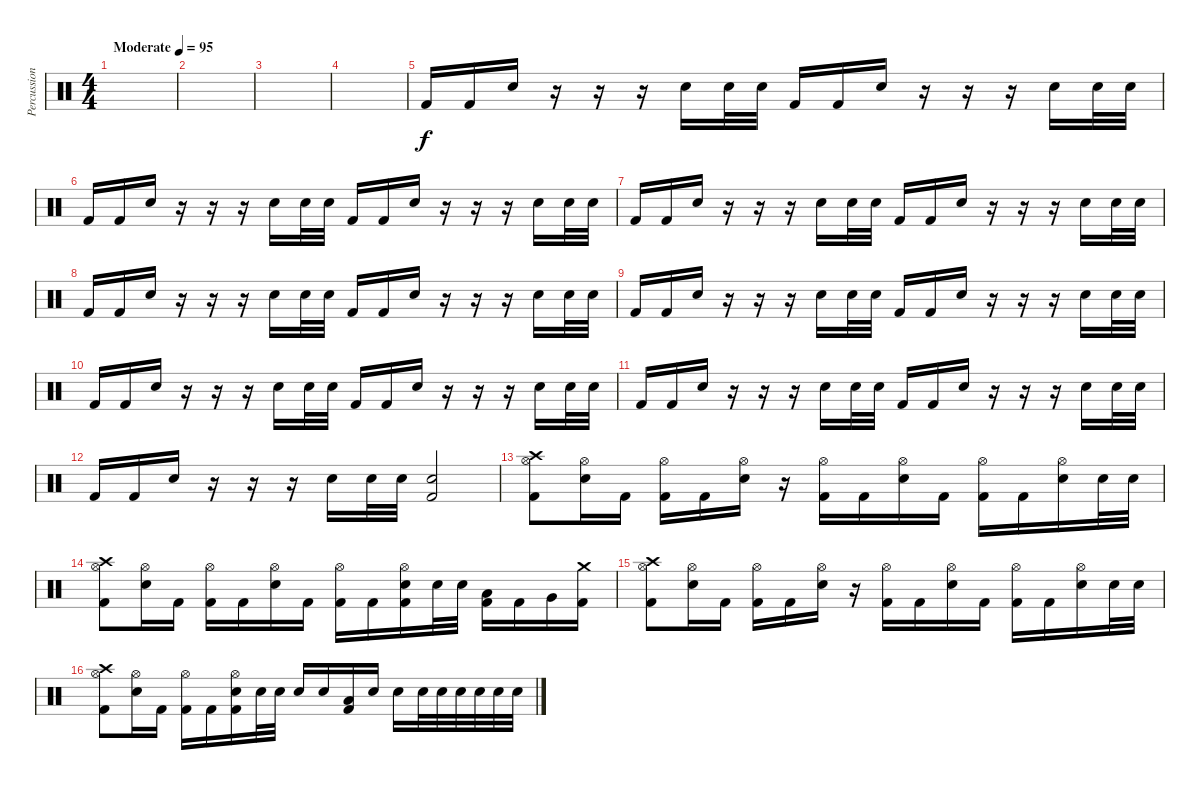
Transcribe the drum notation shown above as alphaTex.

\track ("Percussion" "Percussion") {instrument percussion}
\staff {score}
\articulation defaults
\ts (4 4)
\tempo (95 "Moderate")
\clef neutral
\ks c
|
|
|
|
"Kick (hit) 2".16 "Kick (hit) 2".16 "Electric Snare (hit)".16 r.16 r.16 r.16 "Electric Snare (hit)".16 "Electric Snare (hit)".32 "Electric Snare (hit)".32 "Kick (hit) 2".16 "Kick (hit) 2".16 "Electric Snare (hit)".16 r.16 r.16 r.16 "Electric Snare (hit)".16 "Electric Snare (hit)".32 "Electric Snare (hit)".32 |
"Kick (hit) 2".16 "Kick (hit) 2".16 "Electric Snare (hit)".16 r.16 r.16 r.16 "Electric Snare (hit)".16 "Electric Snare (hit)".32 "Electric Snare (hit)".32 "Kick (hit) 2".16 "Kick (hit) 2".16 "Electric Snare (hit)".16 r.16 r.16 r.16 "Electric Snare (hit)".16 "Electric Snare (hit)".32 "Electric Snare (hit)".32 |
"Kick (hit) 2".16 "Kick (hit) 2".16 "Electric Snare (hit)".16 r.16 r.16 r.16 "Electric Snare (hit)".16 "Electric Snare (hit)".32 "Electric Snare (hit)".32 "Kick (hit) 2".16 "Kick (hit) 2".16 "Electric Snare (hit)".16 r.16 r.16 r.16 "Electric Snare (hit)".16 "Electric Snare (hit)".32 "Electric Snare (hit)".32 |
"Kick (hit) 2".16 "Kick (hit) 2".16 "Electric Snare (hit)".16 r.16 r.16 r.16 "Electric Snare (hit)".16 "Electric Snare (hit)".32 "Electric Snare (hit)".32 "Kick (hit) 2".16 "Kick (hit) 2".16 "Electric Snare (hit)".16 r.16 r.16 r.16 "Electric Snare (hit)".16 "Electric Snare (hit)".32 "Electric Snare (hit)".32 |
"Kick (hit) 2".16 "Kick (hit) 2".16 "Electric Snare (hit)".16 r.16 r.16 r.16 "Electric Snare (hit)".16 "Electric Snare (hit)".32 "Electric Snare (hit)".32 "Kick (hit) 2".16 "Kick (hit) 2".16 "Electric Snare (hit)".16 r.16 r.16 r.16 "Electric Snare (hit)".16 "Electric Snare (hit)".32 "Electric Snare (hit)".32 |
"Kick (hit) 2".16 "Kick (hit) 2".16 "Electric Snare (hit)".16 r.16 r.16 r.16 "Electric Snare (hit)".16 "Electric Snare (hit)".32 "Electric Snare (hit)".32 "Kick (hit) 2".16 "Kick (hit) 2".16 "Electric Snare (hit)".16 r.16 r.16 r.16 "Electric Snare (hit)".16 "Electric Snare (hit)".32 "Electric Snare (hit)".32 |
"Kick (hit) 2".16 "Kick (hit) 2".16 "Electric Snare (hit)".16 r.16 r.16 r.16 "Electric Snare (hit)".16 "Electric Snare (hit)".32 "Electric Snare (hit)".32 "Kick (hit) 2".16 "Kick (hit) 2".16 "Electric Snare (hit)".16 r.16 r.16 r.16 "Electric Snare (hit)".16 "Electric Snare (hit)".32 "Electric Snare (hit)".32 |
"Kick (hit) 2".16 "Kick (hit) 2".16 "Electric Snare (hit)".16 r.16 r.16 r.16 "Electric Snare (hit)".16 "Electric Snare (hit)".32 "Electric Snare (hit)".32 ("Electric Snare (hit)" "Kick (hit) 2").2 |
("Crash high (hit)" "Hi-Hat (open)" "Kick (hit) 2").8 ("Hi-Hat (open)" "Electric Snare (hit)").16 "Kick (hit) 2".16 ("Hi-Hat (open)" "Kick (hit) 2").16 "Kick (hit) 2".16 ("Hi-Hat (open)" "Electric Snare (hit)").16 r.16 ("Hi-Hat (open)" "Kick (hit) 2").16 "Kick (hit) 2".16 ("Hi-Hat (open)" "Electric Snare (hit)").16 "Kick (hit) 2".16 ("Hi-Hat (open)" "Kick (hit) 2").16 "Kick (hit) 2".16 ("Hi-Hat (open)" "Electric Snare (hit)").16 "Electric Snare (hit)".32 "Electric Snare (hit)".32 |
("Crash high (hit)" "Hi-Hat (open)" "Kick (hit) 2").8 ("Hi-Hat (open)" "Electric Snare (hit)").16 "Kick (hit) 2".16 ("Hi-Hat (open)" "Kick (hit) 2").16 "Kick (hit) 2".16 ("Hi-Hat (open)" "Electric Snare (hit)").16 "Kick (hit) 2".16 ("Hi-Hat (open)" "Kick (hit) 2").16 "Kick (hit) 2".16 ("Hi-Hat (open)" "Electric Snare (hit)" "Kick (hit) 2").16 "Electric Snare (hit)".32 "Electric Snare (hit)".32 ("Low Tom (hit)" "Kick (hit) 2").16 "Kick (hit) 2".16 "Very Low Tom (hit)".16 ("Crash medium (hit)" "Kick (hit) 2").16 |
("Crash high (hit)" "Hi-Hat (open)" "Kick (hit) 2").8 ("Hi-Hat (open)" "Electric Snare (hit)").16 "Kick (hit) 2".16 ("Hi-Hat (open)" "Kick (hit) 2").16 "Kick (hit) 2".16 ("Hi-Hat (open)" "Electric Snare (hit)").16 r.16 ("Hi-Hat (open)" "Kick (hit) 2").16 "Kick (hit) 2".16 ("Hi-Hat (open)" "Electric Snare (hit)").16 "Kick (hit) 2".16 ("Hi-Hat (open)" "Kick (hit) 2").16 "Kick (hit) 2".16 ("Hi-Hat (open)" "Electric Snare (hit)").16 "Electric Snare (hit)".32 "Electric Snare (hit)".32 |
("Crash high (hit)" "Hi-Hat (open)" "Kick (hit) 2").8 ("Hi-Hat (open)" "Electric Snare (hit)").16 "Kick (hit) 2".16 ("Hi-Hat (open)" "Kick (hit) 2").16 "Kick (hit) 2".16 ("Hi-Hat (open)" "Electric Snare (hit)" "Kick (hit) 2").16 "Electric Snare (hit)".32 "Electric Snare (hit)".32 "Electric Snare (hit)".16 "Electric Snare (hit)".16 ("Low Tom (hit)" "Kick (hit) 2").16 "Electric Snare (hit)".16 "Electric Snare (hit)".16 "Electric Snare (hit)".32 "Electric Snare (hit)".32 "Electric Snare (hit)".32 "Electric Snare (hit)".32 "Electric Snare (hit)".32 "Electric Snare (hit)".32
